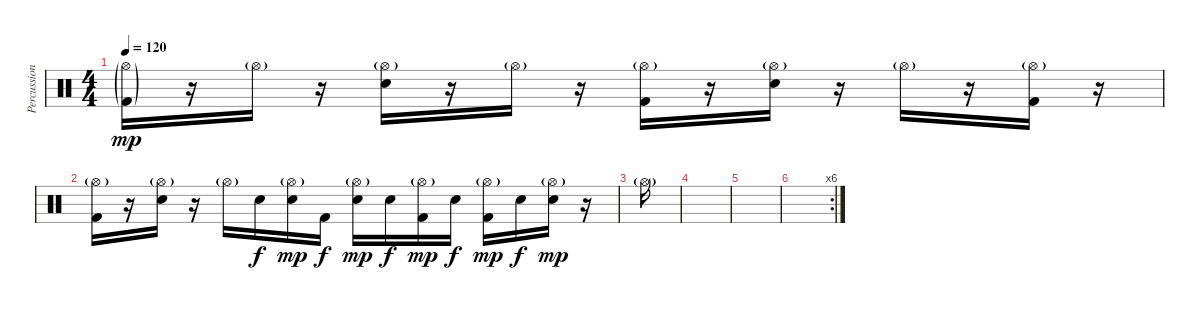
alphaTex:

\track ("Percussion (Drum Kit)" "Percussion") {instrument percussion}
\staff {score}
\articulation defaults
\ts (4 4)
\tempo 120
\clef neutral
\ks c
("Hi-Hat (open)"{g} "Kick (hit) 2"{g}).16{dy mp} r.16 "Hi-Hat (open)"{g}.16 r.16 ("Hi-Hat (open)"{g} "Snare (hit) 2").16 r.16 "Hi-Hat (open)"{g}.16 r.16 ("Hi-Hat (open)"{g} "Kick (hit) 2").16 r.16 ("Hi-Hat (open)"{g} "Snare (hit) 2").16 r.16 "Hi-Hat (open)"{g}.16 r.16 ("Hi-Hat (open)"{g} "Kick (hit) 2").16 r.16 |
("Hi-Hat (open)"{g} "Kick (hit) 2").16 r.16 ("Hi-Hat (open)"{g} "Snare (hit) 2").16 r.16 "Hi-Hat (open)"{g}.16 "Snare (hit) 2".16{dy f} ("Hi-Hat (open)"{g} "Snare (hit) 2").16{dy mp} "Kick (hit) 2".16{dy f} ("Hi-Hat (open)"{g} "Snare (hit) 2").16{dy mp} "Snare (hit) 2".16{dy f} ("Hi-Hat (open)"{g} "Kick (hit) 2").16{dy mp} "Snare (hit) 2".16{dy f} ("Hi-Hat (open)"{g} "Kick (hit) 2").16{dy mp} "Snare (hit) 2".16{dy f} ("Hi-Hat (open)"{g} "Snare (hit) 2").16{dy mp} r.16 |
"Hi-Hat (open)"{g}.16 |
|
|
\rc 6
